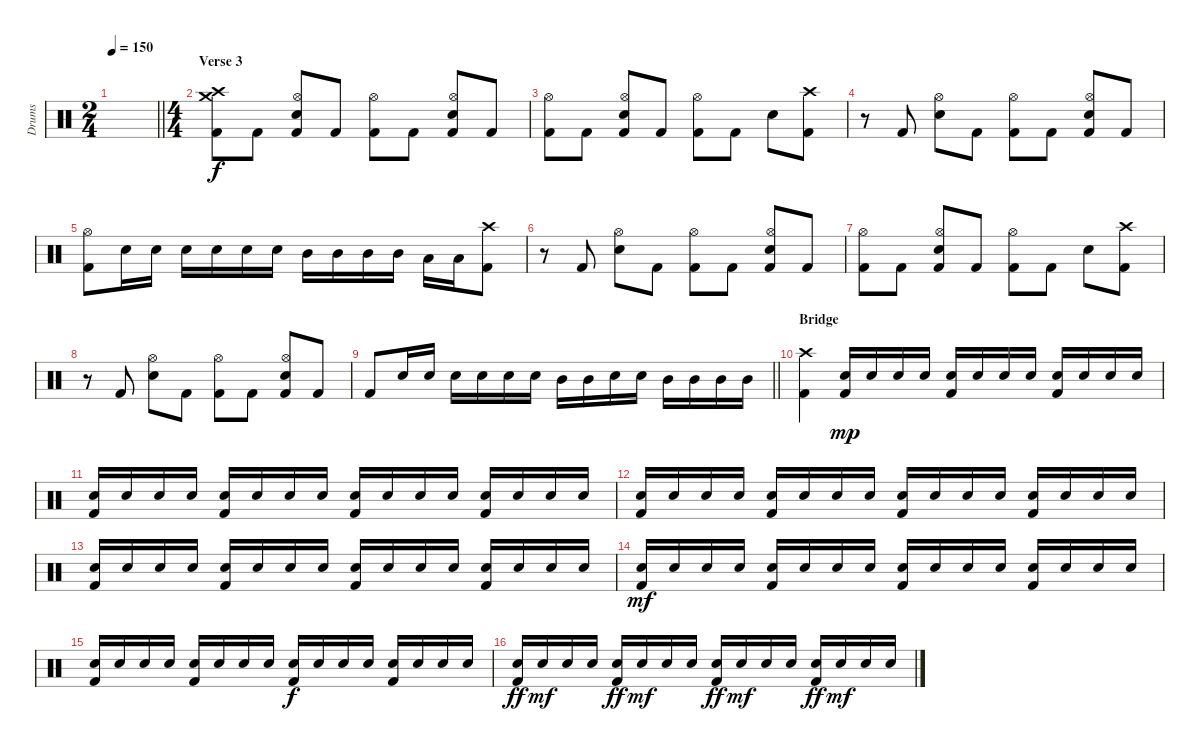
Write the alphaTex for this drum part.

\track ("Drums" "Drums") {instrument percussion}
\staff {score}
\articulation defaults
\ts (2 4)
\tempo 150
\clef neutral
\barLineRight lightlight
\ks c
|
\ts (4 4)
\section ("" "Verse 3")
("Crash high (hit)" "Crash medium (hit)" "Kick (hit) 2").8{dy f} "Kick (hit) 2".8 ("Hi-Hat (open)" "Snare (hit) 2" "Kick (hit) 2").8 "Kick (hit) 2".8 ("Hi-Hat (open)" "Kick (hit) 2").8 "Kick (hit) 2".8 ("Hi-Hat (open)" "Snare (hit) 2" "Kick (hit) 2").8 "Kick (hit) 2".8 |
("Hi-Hat (open)" "Kick (hit) 2").8 "Kick (hit) 2".8 ("Hi-Hat (open)" "Snare (hit) 2" "Kick (hit) 2").8 "Kick (hit) 2".8 ("Hi-Hat (open)" "Kick (hit) 2").8 "Kick (hit) 2".8 "Snare (hit) 2".8 ("Crash high (hit)" "Kick (hit) 2").8 |
r.8 "Kick (hit) 2".8 ("Hi-Hat (open)" "Snare (hit) 2").8 "Kick (hit) 2".8 ("Hi-Hat (open)" "Kick (hit) 2").8 "Kick (hit) 2".8 ("Hi-Hat (open)" "Snare (hit) 2" "Kick (hit) 2").8 "Kick (hit) 2".8 |
("Hi-Hat (open)" "Kick (hit) 2").8 "Snare (hit) 2".16 "Snare (hit) 2".16 "Snare (hit) 2".16 "Snare (hit) 2".16 "Snare (hit) 2".16 "Snare (hit) 2".16 "Mid Tom (hit)".16 "Mid Tom (hit)".16 "Mid Tom (hit)".16 "Mid Tom (hit)".16 "Low Tom (hit)".16 "Low Tom (hit)".16 ("Crash high (hit)" "Kick (hit) 2").8 |
r.8 "Kick (hit) 2".8 ("Hi-Hat (open)" "Snare (hit) 2").8 "Kick (hit) 2".8 ("Hi-Hat (open)" "Kick (hit) 2").8 "Kick (hit) 2".8 ("Hi-Hat (open)" "Snare (hit) 2" "Kick (hit) 2").8 "Kick (hit) 2".8 |
("Hi-Hat (open)" "Kick (hit) 2").8 "Kick (hit) 2".8 ("Hi-Hat (open)" "Snare (hit) 2" "Kick (hit) 2").8 "Kick (hit) 2".8 ("Hi-Hat (open)" "Kick (hit) 2").8 "Kick (hit) 2".8 "Snare (hit) 2".8 ("Crash high (hit)" "Kick (hit) 2").8 |
r.8 "Kick (hit) 2".8 ("Hi-Hat (open)" "Snare (hit) 2").8 "Kick (hit) 2".8 ("Hi-Hat (open)" "Kick (hit) 2").8 "Kick (hit) 2".8 ("Hi-Hat (open)" "Snare (hit) 2" "Kick (hit) 2").8 "Kick (hit) 2".8 |
\barLineRight lightlight "Kick (hit) 2".8 "Snare (hit) 2".16 "Snare (hit) 2".16 "Snare (hit) 2".16 "Snare (hit) 2".16 "Snare (hit) 2".16 "Snare (hit) 2".16 "Mid Tom (hit)".16 "Mid Tom (hit)".16 "Snare (hit) 2".16 "Snare (hit) 2".16 "Mid Tom (hit)".16 "Mid Tom (hit)".16 "Mid Tom (hit)".16 "Mid Tom (hit)".16
|
\section ("" "Bridge")
("Crash high (hit)" "Kick (hit) 2").4 ("Snare (hit) 2" "Kick (hit) 2").16{dy mp} "Snare (hit) 2".16 "Snare (hit) 2".16 "Snare (hit) 2".16 ("Snare (hit) 2" "Kick (hit) 2").16 "Snare (hit) 2".16 "Snare (hit) 2".16 "Snare (hit) 2".16 ("Snare (hit) 2" "Kick (hit) 2").16 "Snare (hit) 2".16 "Snare (hit) 2".16 "Snare (hit) 2".16 |
("Snare (hit) 2" "Kick (hit) 2").16 "Snare (hit) 2".16 "Snare (hit) 2".16 "Snare (hit) 2".16 ("Snare (hit) 2" "Kick (hit) 2").16 "Snare (hit) 2".16 "Snare (hit) 2".16 "Snare (hit) 2".16 ("Snare (hit) 2" "Kick (hit) 2").16 "Snare (hit) 2".16 "Snare (hit) 2".16 "Snare (hit) 2".16 ("Snare (hit) 2" "Kick (hit) 2").16 "Snare (hit) 2".16 "Snare (hit) 2".16 "Snare (hit) 2".16 |
("Snare (hit) 2" "Kick (hit) 2").16 "Snare (hit) 2".16 "Snare (hit) 2".16 "Snare (hit) 2".16 ("Snare (hit) 2" "Kick (hit) 2").16 "Snare (hit) 2".16 "Snare (hit) 2".16 "Snare (hit) 2".16 ("Snare (hit) 2" "Kick (hit) 2").16 "Snare (hit) 2".16 "Snare (hit) 2".16 "Snare (hit) 2".16 ("Snare (hit) 2" "Kick (hit) 2").16 "Snare (hit) 2".16 "Snare (hit) 2".16 "Snare (hit) 2".16 |
("Snare (hit) 2" "Kick (hit) 2").16 "Snare (hit) 2".16 "Snare (hit) 2".16 "Snare (hit) 2".16 ("Snare (hit) 2" "Kick (hit) 2").16 "Snare (hit) 2".16 "Snare (hit) 2".16 "Snare (hit) 2".16 ("Snare (hit) 2" "Kick (hit) 2").16 "Snare (hit) 2".16 "Snare (hit) 2".16 "Snare (hit) 2".16 ("Snare (hit) 2" "Kick (hit) 2").16 "Snare (hit) 2".16 "Snare (hit) 2".16 "Snare (hit) 2".16 |
("Snare (hit) 2" "Kick (hit) 2").16{dy mf} "Snare (hit) 2".16 "Snare (hit) 2".16 "Snare (hit) 2".16 ("Snare (hit) 2" "Kick (hit) 2").16 "Snare (hit) 2".16 "Snare (hit) 2".16 "Snare (hit) 2".16 ("Snare (hit) 2" "Kick (hit) 2").16 "Snare (hit) 2".16 "Snare (hit) 2".16 "Snare (hit) 2".16 ("Snare (hit) 2" "Kick (hit) 2").16 "Snare (hit) 2".16 "Snare (hit) 2".16 "Snare (hit) 2".16 |
("Snare (hit) 2" "Kick (hit) 2").16 "Snare (hit) 2".16 "Snare (hit) 2".16 "Snare (hit) 2".16 ("Snare (hit) 2" "Kick (hit) 2").16 "Snare (hit) 2".16 "Snare (hit) 2".16 "Snare (hit) 2".16 ("Snare (hit) 2" "Kick (hit) 2").16{dy f} "Snare (hit) 2".16 "Snare (hit) 2".16 "Snare (hit) 2".16 ("Snare (hit) 2" "Kick (hit) 2").16 "Snare (hit) 2".16 "Snare (hit) 2".16 "Snare (hit) 2".16 |
("Snare (hit) 2" "Kick (hit) 2").16{dy ff} "Snare (hit) 2".16{dy mf} "Snare (hit) 2".16 "Snare (hit) 2".16 ("Snare (hit) 2" "Kick (hit) 2").16{dy ff} "Snare (hit) 2".16{dy mf} "Snare (hit) 2".16 "Snare (hit) 2".16 ("Snare (hit) 2" "Kick (hit) 2").16{dy ff} "Snare (hit) 2".16{dy mf} "Snare (hit) 2".16 "Snare (hit) 2".16 ("Snare (hit) 2" "Kick (hit) 2").16{dy ff} "Snare (hit) 2".16{dy mf} "Snare (hit) 2".16 "Snare (hit) 2".16
